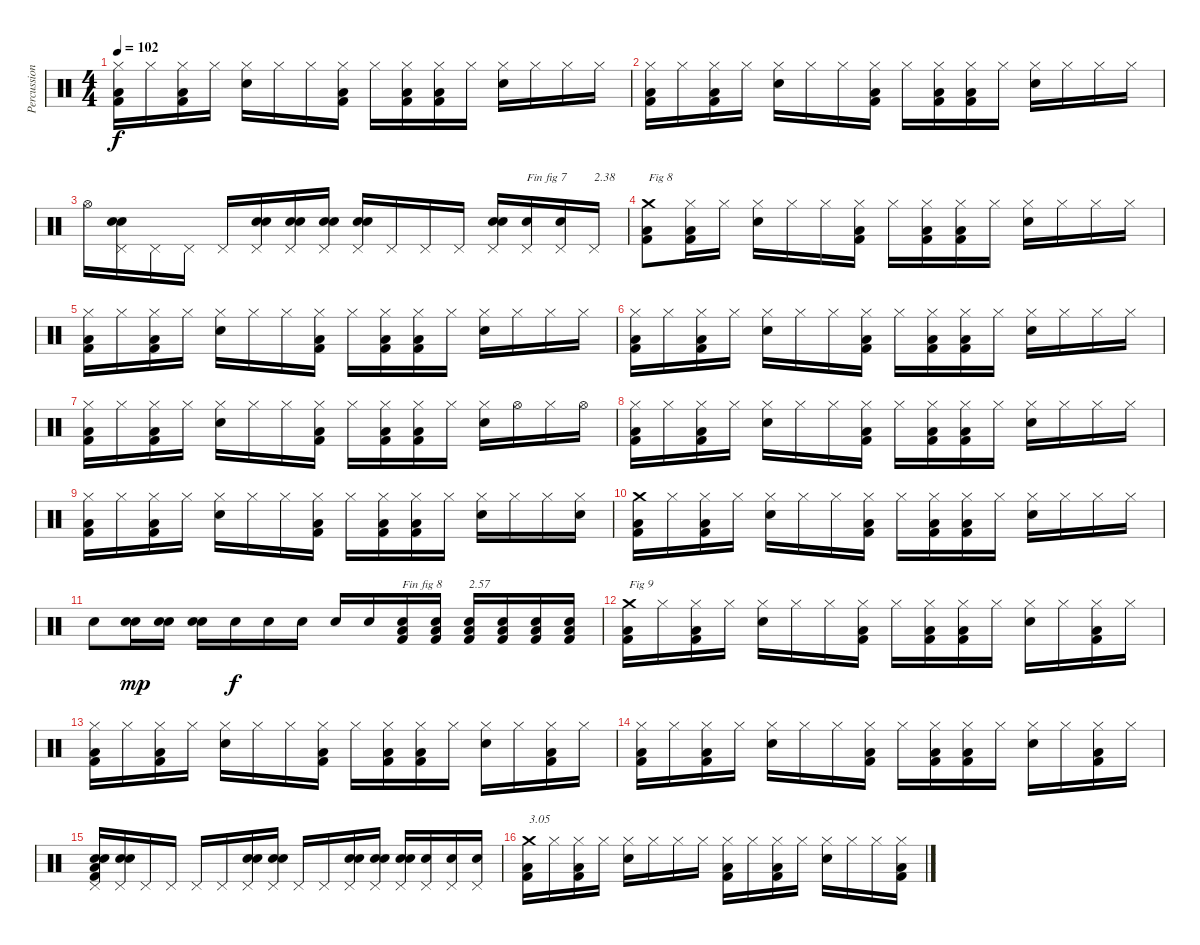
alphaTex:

\track ("Percussions" "Percussion") {instrument percussion}
\staff {score}
\articulation defaults
\ts (4 4)
\tempo 102
\clef neutral
\ks c
("Kick (hit) 2" "Low Floor Tom (hit)" "Hi-Hat (closed)").16{dy f} "Hi-Hat (closed)".16 ("Kick (hit) 2" "Low Floor Tom (hit)" "Hi-Hat (closed)").16 "Hi-Hat (closed)".16 ("Snare (hit) 2" "Hi-Hat (closed)").16 "Hi-Hat (closed)".16 "Hi-Hat (closed)".16 ("Kick (hit) 2" "Low Floor Tom (hit)" "Hi-Hat (closed)").16 "Hi-Hat (closed)".16 ("Kick (hit) 2" "Low Floor Tom (hit)" "Hi-Hat (closed)").16 ("Kick (hit) 2" "Low Floor Tom (hit)" "Hi-Hat (closed)").16 "Hi-Hat (closed)".16 ("Snare (hit) 2" "Hi-Hat (closed)").16 "Hi-Hat (closed)".16 "Hi-Hat (closed)".16 "Hi-Hat (closed)".16 |
("Kick (hit) 2" "Low Floor Tom (hit)" "Hi-Hat (closed)").16 "Hi-Hat (closed)".16 ("Kick (hit) 2" "Low Floor Tom (hit)" "Hi-Hat (closed)").16 "Hi-Hat (closed)".16 ("Snare (hit) 2" "Hi-Hat (closed)").16 "Hi-Hat (closed)".16 "Hi-Hat (closed)".16 ("Kick (hit) 2" "Low Floor Tom (hit)" "Hi-Hat (closed)").16 "Hi-Hat (closed)".16 ("Kick (hit) 2" "Low Floor Tom (hit)" "Hi-Hat (closed)").16 ("Kick (hit) 2" "Low Floor Tom (hit)" "Hi-Hat (closed)").16 "Hi-Hat (closed)".16 ("Snare (hit) 2" "Hi-Hat (closed)").16 "Hi-Hat (closed)".16 "Hi-Hat (closed)".16 "Hi-Hat (closed)".16 |
"Hi-Hat (open)".16 ("Electric Snare (hit)" "Hand Clap (hit)" "Pedal Hi-Hat (hit)").16 "Pedal Hi-Hat (hit)".16 "Pedal Hi-Hat (hit)".16 "Pedal Hi-Hat (hit)".16 ("Electric Snare (hit)" "Hand Clap (hit)" "Pedal Hi-Hat (hit)").16 ("Electric Snare (hit)" "Hand Clap (hit)" "Pedal Hi-Hat (hit)").16 ("Electric Snare (hit)" "Hand Clap (hit)" "Pedal Hi-Hat (hit)").16 ("Electric Snare (hit)" "Hand Clap (hit)" "Pedal Hi-Hat (hit)").16 "Pedal Hi-Hat (hit)".16 "Pedal Hi-Hat (hit)".16 "Pedal Hi-Hat (hit)".16 ("Electric Snare (hit)" "Hand Clap (hit)" "Pedal Hi-Hat (hit)").16 ("Snare (hit) 2" "Pedal Hi-Hat (hit)").16{txt "Fin fig 7"} ("Snare (hit) 2" "Pedal Hi-Hat (hit)").16 "Pedal Hi-Hat (hit)".16{txt "2.38"} |
("Kick (hit) 2" "Low Floor Tom (hit)" "Crash medium (hit)").8{txt "Fig 8"} ("Kick (hit) 2" "Low Floor Tom (hit)" "Hi-Hat (closed)").16 "Hi-Hat (closed)".16 ("Snare (hit) 2" "Hi-Hat (closed)").16 "Hi-Hat (closed)".16 "Hi-Hat (closed)".16 ("Kick (hit) 2" "Low Floor Tom (hit)" "Hi-Hat (closed)").16 "Hi-Hat (closed)".16 ("Kick (hit) 2" "Low Floor Tom (hit)" "Hi-Hat (closed)").16 ("Kick (hit) 2" "Low Floor Tom (hit)" "Hi-Hat (closed)").16 "Hi-Hat (closed)".16 ("Snare (hit) 2" "Hi-Hat (closed)").16 "Hi-Hat (closed)".16 "Hi-Hat (closed)".16 "Hi-Hat (closed)".16 |
("Kick (hit) 2" "Low Floor Tom (hit)" "Hi-Hat (closed)").16 "Hi-Hat (closed)".16 ("Kick (hit) 2" "Low Floor Tom (hit)" "Hi-Hat (closed)").16 "Hi-Hat (closed)".16 ("Snare (hit) 2" "Hi-Hat (closed)").16 "Hi-Hat (closed)".16 "Hi-Hat (closed)".16 ("Kick (hit) 2" "Low Floor Tom (hit)" "Hi-Hat (closed)").16 "Hi-Hat (closed)".16 ("Kick (hit) 2" "Low Floor Tom (hit)" "Hi-Hat (closed)").16 ("Kick (hit) 2" "Low Floor Tom (hit)" "Hi-Hat (closed)").16 "Hi-Hat (closed)".16 ("Snare (hit) 2" "Hi-Hat (closed)").16 "Hi-Hat (closed)".16 "Hi-Hat (closed)".16 "Hi-Hat (closed)".16 |
("Kick (hit) 2" "Low Floor Tom (hit)" "Hi-Hat (closed)").16 "Hi-Hat (closed)".16 ("Kick (hit) 2" "Low Floor Tom (hit)" "Hi-Hat (closed)").16 "Hi-Hat (closed)".16 ("Snare (hit) 2" "Hi-Hat (closed)").16 "Hi-Hat (closed)".16 "Hi-Hat (closed)".16 ("Kick (hit) 2" "Low Floor Tom (hit)" "Hi-Hat (closed)").16 "Hi-Hat (closed)".16 ("Kick (hit) 2" "Low Floor Tom (hit)" "Hi-Hat (closed)").16 ("Kick (hit) 2" "Low Floor Tom (hit)" "Hi-Hat (closed)").16 "Hi-Hat (closed)".16 ("Snare (hit) 2" "Hi-Hat (closed)").16 "Hi-Hat (closed)".16 "Hi-Hat (closed)".16 "Hi-Hat (closed)".16 |
("Kick (hit) 2" "Low Floor Tom (hit)" "Hi-Hat (closed)").16 "Hi-Hat (closed)".16 ("Kick (hit) 2" "Low Floor Tom (hit)" "Hi-Hat (closed)").16 "Hi-Hat (closed)".16 ("Snare (hit) 2" "Hi-Hat (closed)").16 "Hi-Hat (closed)".16 "Hi-Hat (closed)".16 ("Kick (hit) 2" "Low Floor Tom (hit)" "Hi-Hat (closed)").16 "Hi-Hat (closed)".16 ("Kick (hit) 2" "Low Floor Tom (hit)" "Hi-Hat (closed)").16 ("Kick (hit) 2" "Low Floor Tom (hit)" "Hi-Hat (closed)").16 "Hi-Hat (closed)".16 ("Snare (hit) 2" "Hi-Hat (closed)").16 "Hi-Hat (open)".16 "Hi-Hat (closed)".16 "Hi-Hat (open)".16 |
("Kick (hit) 2" "Low Floor Tom (hit)" "Hi-Hat (closed)").16 "Hi-Hat (closed)".16 ("Kick (hit) 2" "Low Floor Tom (hit)" "Hi-Hat (closed)").16 "Hi-Hat (closed)".16 ("Snare (hit) 2" "Hi-Hat (closed)").16 "Hi-Hat (closed)".16 "Hi-Hat (closed)".16 ("Kick (hit) 2" "Low Floor Tom (hit)" "Hi-Hat (closed)").16 "Hi-Hat (closed)".16 ("Kick (hit) 2" "Low Floor Tom (hit)" "Hi-Hat (closed)").16 ("Kick (hit) 2" "Low Floor Tom (hit)" "Hi-Hat (closed)").16 "Hi-Hat (closed)".16 ("Snare (hit) 2" "Hi-Hat (closed)").16 "Hi-Hat (closed)".16 "Hi-Hat (closed)".16 "Hi-Hat (closed)".16 |
("Kick (hit) 2" "Low Floor Tom (hit)" "Hi-Hat (closed)").16 "Hi-Hat (closed)".16 ("Kick (hit) 2" "Low Floor Tom (hit)" "Hi-Hat (closed)").16 "Hi-Hat (closed)".16 ("Snare (hit) 2" "Hi-Hat (closed)").16 "Hi-Hat (closed)".16 "Hi-Hat (closed)".16 ("Kick (hit) 2" "Low Floor Tom (hit)" "Hi-Hat (closed)").16 "Hi-Hat (closed)".16 ("Kick (hit) 2" "Low Floor Tom (hit)" "Hi-Hat (closed)").16 ("Kick (hit) 2" "Low Floor Tom (hit)" "Hi-Hat (closed)").16 "Hi-Hat (closed)".16 ("Snare (hit) 2" "Hi-Hat (closed)").16 "Hi-Hat (closed)".16 "Hi-Hat (closed)".16 ("Snare (hit) 2" "Hi-Hat (closed)").16 |
("Kick (hit) 2" "Low Floor Tom (hit)" "Crash medium (hit)").16 "Hi-Hat (closed)".16 ("Kick (hit) 2" "Low Floor Tom (hit)" "Hi-Hat (closed)").16 "Hi-Hat (closed)".16 ("Snare (hit) 2" "Hi-Hat (closed)").16 "Hi-Hat (closed)".16 "Hi-Hat (closed)".16 ("Kick (hit) 2" "Low Floor Tom (hit)" "Hi-Hat (closed)").16 "Hi-Hat (closed)".16 ("Kick (hit) 2" "Low Floor Tom (hit)" "Hi-Hat (closed)").16 ("Kick (hit) 2" "Low Floor Tom (hit)" "Hi-Hat (closed)").16 "Hi-Hat (closed)".16 ("Snare (hit) 2" "Hi-Hat (closed)").16 "Hi-Hat (closed)".16 "Hi-Hat (closed)".16 "Hi-Hat (closed)".16 |
"Snare (hit) 2".8 ("Electric Snare (hit)" "Hand Clap (hit)").16{dy mp} ("Electric Snare (hit)" "Hand Clap (hit)").16 ("Electric Snare (hit)" "Hand Clap (hit)").16 "Snare (hit) 2".16{dy f} "Snare (hit) 2".16 "Snare (hit) 2".16 "Snare (hit) 2".16 "Snare (hit) 2".16 ("Kick (hit) 2" "Low Floor Tom (hit)" "Snare (hit) 2").16{txt "Fin fig 8"} ("Kick (hit) 2" "Low Floor Tom (hit)" "Snare (hit) 2").16 ("Kick (hit) 2" "Low Floor Tom (hit)" "Snare (hit) 2").16{txt "2.57"} ("Kick (hit) 2" "Low Floor Tom (hit)" "Snare (hit) 2").16 ("Kick (hit) 2" "Low Floor Tom (hit)" "Snare (hit) 2").16 ("Kick (hit) 2" "Low Floor Tom (hit)" "Snare (hit) 2").16 |
("Kick (hit) 2" "Low Floor Tom (hit)" "Crash medium (hit)").16{txt "Fig 9"} "Hi-Hat (closed)".16 ("Kick (hit) 2" "Low Floor Tom (hit)" "Hi-Hat (closed)").16 "Hi-Hat (closed)".16 ("Snare (hit) 2" "Hi-Hat (closed)").16 "Hi-Hat (closed)".16 "Hi-Hat (closed)".16 ("Kick (hit) 2" "Low Floor Tom (hit)" "Hi-Hat (closed)").16 "Hi-Hat (closed)".16 ("Kick (hit) 2" "Low Floor Tom (hit)" "Hi-Hat (closed)").16 ("Kick (hit) 2" "Low Floor Tom (hit)" "Hi-Hat (closed)").16 "Hi-Hat (closed)".16 ("Snare (hit) 2" "Hi-Hat (closed)").16 "Hi-Hat (closed)".16 ("Kick (hit) 2" "Low Floor Tom (hit)" "Hi-Hat (closed)").16 "Hi-Hat (closed)".16 |
("Kick (hit) 2" "Low Floor Tom (hit)" "Hi-Hat (closed)").16 "Hi-Hat (closed)".16 ("Kick (hit) 2" "Low Floor Tom (hit)" "Hi-Hat (closed)").16 "Hi-Hat (closed)".16 ("Snare (hit) 2" "Hi-Hat (closed)").16 "Hi-Hat (closed)".16 "Hi-Hat (closed)".16 ("Kick (hit) 2" "Low Floor Tom (hit)" "Hi-Hat (closed)").16 "Hi-Hat (closed)".16 ("Kick (hit) 2" "Low Floor Tom (hit)" "Hi-Hat (closed)").16 ("Kick (hit) 2" "Low Floor Tom (hit)" "Hi-Hat (closed)").16 "Hi-Hat (closed)".16 ("Snare (hit) 2" "Hi-Hat (closed)").16 "Hi-Hat (closed)".16 ("Kick (hit) 2" "Low Floor Tom (hit)" "Hi-Hat (closed)").16 "Hi-Hat (closed)".16 |
("Kick (hit) 2" "Low Floor Tom (hit)" "Hi-Hat (closed)").16 "Hi-Hat (closed)".16 ("Kick (hit) 2" "Low Floor Tom (hit)" "Hi-Hat (closed)").16 "Hi-Hat (closed)".16 ("Snare (hit) 2" "Hi-Hat (closed)").16 "Hi-Hat (closed)".16 "Hi-Hat (closed)".16 ("Kick (hit) 2" "Low Floor Tom (hit)" "Hi-Hat (closed)").16 "Hi-Hat (closed)".16 ("Kick (hit) 2" "Low Floor Tom (hit)" "Hi-Hat (closed)").16 ("Kick (hit) 2" "Low Floor Tom (hit)" "Hi-Hat (closed)").16 "Hi-Hat (closed)".16 ("Snare (hit) 2" "Hi-Hat (closed)").16 "Hi-Hat (closed)".16 ("Kick (hit) 2" "Low Floor Tom (hit)" "Hi-Hat (closed)").16 "Hi-Hat (closed)".16 |
("Kick (hit) 2" "Low Floor Tom (hit)" "Electric Snare (hit)" "Hand Clap (hit)" "Pedal Hi-Hat (hit)").16 ("Electric Snare (hit)" "Hand Clap (hit)" "Pedal Hi-Hat (hit)").16 "Pedal Hi-Hat (hit)".16 "Pedal Hi-Hat (hit)".16 "Pedal Hi-Hat (hit)".16 "Pedal Hi-Hat (hit)".16 ("Electric Snare (hit)" "Hand Clap (hit)" "Pedal Hi-Hat (hit)").16 ("Electric Snare (hit)" "Hand Clap (hit)" "Pedal Hi-Hat (hit)").16 "Pedal Hi-Hat (hit)".16 "Pedal Hi-Hat (hit)".16 ("Electric Snare (hit)" "Hand Clap (hit)" "Pedal Hi-Hat (hit)").16 ("Electric Snare (hit)" "Hand Clap (hit)" "Pedal Hi-Hat (hit)").16 ("Electric Snare (hit)" "Hand Clap (hit)" "Pedal Hi-Hat (hit)").16 ("Snare (hit) 2" "Pedal Hi-Hat (hit)").16 ("Snare (hit) 2" "Pedal Hi-Hat (hit)").16 ("Snare (hit) 2" "Pedal Hi-Hat (hit)").16 |
("Kick (hit) 2" "Low Floor Tom (hit)" "Crash medium (hit)").16{txt "3.05"} "Hi-Hat (closed)".16 ("Kick (hit) 2" "Low Floor Tom (hit)" "Hi-Hat (closed)").16 "Hi-Hat (closed)".16 ("Snare (hit) 2" "Hi-Hat (closed)").16 "Hi-Hat (closed)".16 "Hi-Hat (closed)".16 "Hi-Hat (closed)".16 ("Kick (hit) 2" "Low Floor Tom (hit)" "Hi-Hat (closed)").16 "Hi-Hat (closed)".16 ("Kick (hit) 2" "Low Floor Tom (hit)" "Hi-Hat (closed)").16 "Hi-Hat (closed)".16 ("Snare (hit) 2" "Hi-Hat (closed)").16 "Hi-Hat (closed)".16 "Hi-Hat (closed)".16 ("Kick (hit) 2" "Low Floor Tom (hit)" "Hi-Hat (closed)").16
